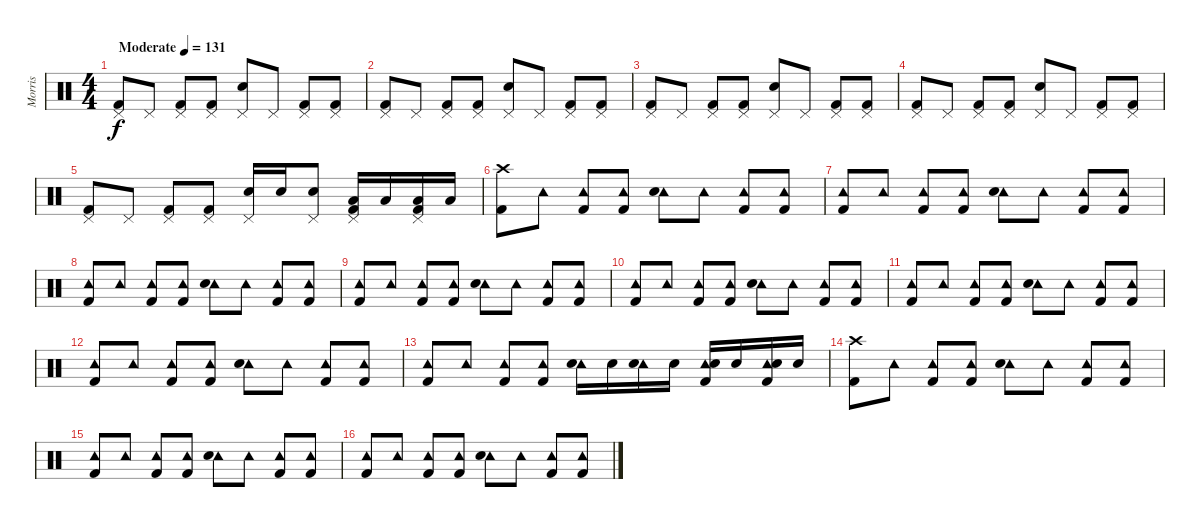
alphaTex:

\track ("Morris" "Morris") {instrument percussion}
\staff {score}
\articulation defaults
\ts (4 4)
\tempo (131 "Moderate")
\clef neutral
\ks c
("Pedal Hi-Hat (hit)" "Kick (hit) 2").8{dy f} "Pedal Hi-Hat (hit)".8 ("Pedal Hi-Hat (hit)" "Kick (hit) 2").8 ("Pedal Hi-Hat (hit)" "Kick (hit) 2").8 ("Pedal Hi-Hat (hit)" "Electric Snare (hit)").8 "Pedal Hi-Hat (hit)".8 ("Pedal Hi-Hat (hit)" "Kick (hit) 2").8 ("Pedal Hi-Hat (hit)" "Kick (hit) 2").8 |
("Pedal Hi-Hat (hit)" "Kick (hit) 2").8 "Pedal Hi-Hat (hit)".8 ("Pedal Hi-Hat (hit)" "Kick (hit) 2").8 ("Pedal Hi-Hat (hit)" "Kick (hit) 2").8 ("Pedal Hi-Hat (hit)" "Electric Snare (hit)").8 "Pedal Hi-Hat (hit)".8 ("Pedal Hi-Hat (hit)" "Kick (hit) 2").8 ("Pedal Hi-Hat (hit)" "Kick (hit) 2").8 |
("Pedal Hi-Hat (hit)" "Kick (hit) 2").8 "Pedal Hi-Hat (hit)".8 ("Pedal Hi-Hat (hit)" "Kick (hit) 2").8 ("Pedal Hi-Hat (hit)" "Kick (hit) 2").8 ("Pedal Hi-Hat (hit)" "Electric Snare (hit)").8 "Pedal Hi-Hat (hit)".8 ("Pedal Hi-Hat (hit)" "Kick (hit) 2").8 ("Pedal Hi-Hat (hit)" "Kick (hit) 2").8 |
("Pedal Hi-Hat (hit)" "Kick (hit) 2").8 "Pedal Hi-Hat (hit)".8 ("Pedal Hi-Hat (hit)" "Kick (hit) 2").8 ("Pedal Hi-Hat (hit)" "Kick (hit) 2").8 ("Pedal Hi-Hat (hit)" "Electric Snare (hit)").8 "Pedal Hi-Hat (hit)".8 ("Pedal Hi-Hat (hit)" "Kick (hit) 2").8 ("Pedal Hi-Hat (hit)" "Kick (hit) 2").8 |
("Pedal Hi-Hat (hit)" "Kick (hit) 2").8 "Pedal Hi-Hat (hit)".8 ("Pedal Hi-Hat (hit)" "Kick (hit) 2").8 ("Pedal Hi-Hat (hit)" "Kick (hit) 2").8 ("Pedal Hi-Hat (hit)" "Electric Snare (hit)").16 "Electric Snare (hit)".16 ("Pedal Hi-Hat (hit)" "Electric Snare (hit)").8 ("Pedal Hi-Hat (hit)" "Low Floor Tom (hit)" "Kick (hit) 2").16 "Low Floor Tom (hit)".16 ("Pedal Hi-Hat (hit)" "Low Floor Tom (hit)" "Kick (hit) 2").16 "Low Floor Tom (hit)".16 |
("Crash high (hit)" "Kick (hit) 2").8 "Tambourine (hit)".8 ("Tambourine (hit)" "Kick (hit) 2").8 ("Tambourine (hit)" "Kick (hit) 2").8 ("Tambourine (hit)" "Electric Snare (hit)").8 "Tambourine (hit)".8 ("Tambourine (hit)" "Kick (hit) 2").8 ("Tambourine (hit)" "Kick (hit) 2").8 |
("Tambourine (hit)" "Kick (hit) 2").8 "Tambourine (hit)".8 ("Tambourine (hit)" "Kick (hit) 2").8 ("Tambourine (hit)" "Kick (hit) 2").8 ("Tambourine (hit)" "Electric Snare (hit)").8 "Tambourine (hit)".8 ("Tambourine (hit)" "Kick (hit) 2").8 ("Tambourine (hit)" "Kick (hit) 2").8 |
("Tambourine (hit)" "Kick (hit) 2").8 "Tambourine (hit)".8 ("Tambourine (hit)" "Kick (hit) 2").8 ("Tambourine (hit)" "Kick (hit) 2").8 ("Tambourine (hit)" "Electric Snare (hit)").8 "Tambourine (hit)".8 ("Tambourine (hit)" "Kick (hit) 2").8 ("Tambourine (hit)" "Kick (hit) 2").8 |
("Tambourine (hit)" "Kick (hit) 2").8 "Tambourine (hit)".8 ("Tambourine (hit)" "Kick (hit) 2").8 ("Tambourine (hit)" "Kick (hit) 2").8 ("Tambourine (hit)" "Electric Snare (hit)").8 "Tambourine (hit)".8 ("Tambourine (hit)" "Kick (hit) 2").8 ("Tambourine (hit)" "Kick (hit) 2").8 |
("Tambourine (hit)" "Kick (hit) 2").8 "Tambourine (hit)".8 ("Tambourine (hit)" "Kick (hit) 2").8 ("Tambourine (hit)" "Kick (hit) 2").8 ("Tambourine (hit)" "Electric Snare (hit)").8 "Tambourine (hit)".8 ("Tambourine (hit)" "Kick (hit) 2").8 ("Tambourine (hit)" "Kick (hit) 2").8 |
("Tambourine (hit)" "Kick (hit) 2").8 "Tambourine (hit)".8 ("Tambourine (hit)" "Kick (hit) 2").8 ("Tambourine (hit)" "Kick (hit) 2").8 ("Tambourine (hit)" "Electric Snare (hit)").8 "Tambourine (hit)".8 ("Tambourine (hit)" "Kick (hit) 2").8 ("Tambourine (hit)" "Kick (hit) 2").8 |
("Tambourine (hit)" "Kick (hit) 2").8 "Tambourine (hit)".8 ("Tambourine (hit)" "Kick (hit) 2").8 ("Tambourine (hit)" "Kick (hit) 2").8 ("Tambourine (hit)" "Electric Snare (hit)").8 "Tambourine (hit)".8 ("Tambourine (hit)" "Kick (hit) 2").8 ("Tambourine (hit)" "Kick (hit) 2").8 |
("Tambourine (hit)" "Kick (hit) 2").8 "Tambourine (hit)".8 ("Tambourine (hit)" "Kick (hit) 2").8 ("Tambourine (hit)" "Kick (hit) 2").8 ("Tambourine (hit)" "Electric Snare (hit)").16 "Electric Snare (hit)".16 ("Tambourine (hit)" "Electric Snare (hit)").16 "Electric Snare (hit)".16 ("Tambourine (hit)" "Electric Snare (hit)" "Kick (hit) 2").16 "Electric Snare (hit)".16 ("Tambourine (hit)" "Electric Snare (hit)" "Kick (hit) 2").16 "Electric Snare (hit)".16 |
("Crash high (hit)" "Kick (hit) 2").8 "Tambourine (hit)".8 ("Tambourine (hit)" "Kick (hit) 2").8 ("Tambourine (hit)" "Kick (hit) 2").8 ("Tambourine (hit)" "Electric Snare (hit)").8 "Tambourine (hit)".8 ("Tambourine (hit)" "Kick (hit) 2").8 ("Tambourine (hit)" "Kick (hit) 2").8 |
("Tambourine (hit)" "Kick (hit) 2").8 "Tambourine (hit)".8 ("Tambourine (hit)" "Kick (hit) 2").8 ("Tambourine (hit)" "Kick (hit) 2").8 ("Tambourine (hit)" "Electric Snare (hit)").8 "Tambourine (hit)".8 ("Tambourine (hit)" "Kick (hit) 2").8 ("Tambourine (hit)" "Kick (hit) 2").8 |
("Tambourine (hit)" "Kick (hit) 2").8 "Tambourine (hit)".8 ("Tambourine (hit)" "Kick (hit) 2").8 ("Tambourine (hit)" "Kick (hit) 2").8 ("Tambourine (hit)" "Electric Snare (hit)").8 "Tambourine (hit)".8 ("Tambourine (hit)" "Kick (hit) 2").8 ("Tambourine (hit)" "Kick (hit) 2").8
